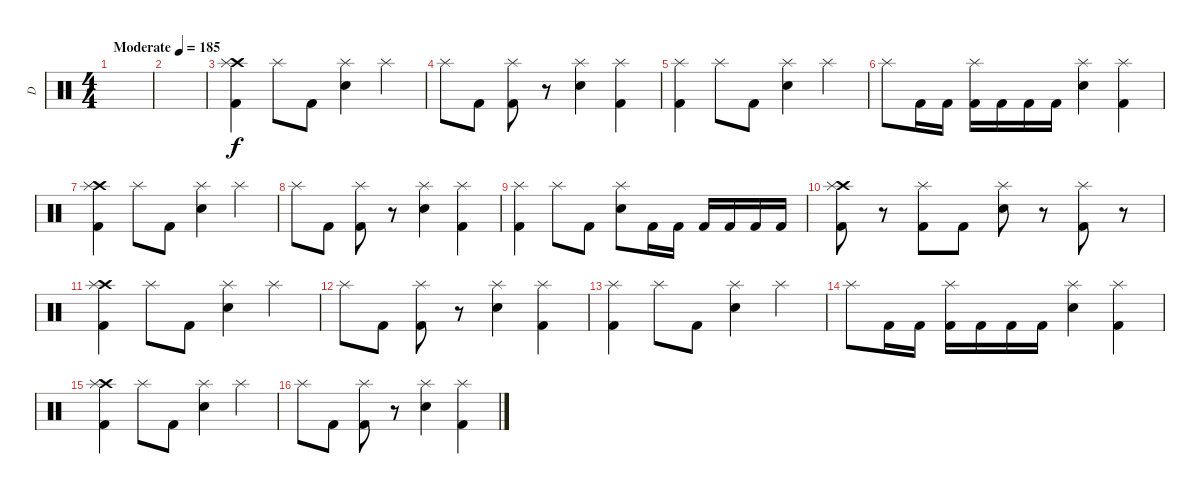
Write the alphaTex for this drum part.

\track ("D" "D") {instrument percussion}
\staff {score}
\articulation defaults
\ts (4 4)
\tempo (185 "Moderate")
\clef neutral
\ks c
|
|
("Crash high (hit)" "Kick (hit) 2" "Splash (hit)").4 "Splash (hit)".8 "Kick (hit) 2".8 ("Electric Snare (hit)" "Splash (hit)").4 "Splash (hit)".4 |
"Splash (hit)".8 "Kick (hit) 2".8 ("Kick (hit) 2" "Splash (hit)").8 r.8 ("Electric Snare (hit)" "Splash (hit)").4 ("Kick (hit) 2" "Splash (hit)").4 |
("Kick (hit) 2" "Splash (hit)").4 "Splash (hit)".8 "Kick (hit) 2".8 ("Electric Snare (hit)" "Splash (hit)").4 "Splash (hit)".4 |
"Splash (hit)".8 "Kick (hit) 2".16 "Kick (hit) 2".16 ("Kick (hit) 2" "Splash (hit)").16 "Kick (hit) 2".16 "Kick (hit) 2".16 "Kick (hit) 2".16 ("Electric Snare (hit)" "Splash (hit)").4 ("Kick (hit) 2" "Splash (hit)").4 |
("Crash high (hit)" "Kick (hit) 2" "Splash (hit)").4 "Splash (hit)".8 "Kick (hit) 2".8 ("Electric Snare (hit)" "Splash (hit)").4 "Splash (hit)".4 |
"Splash (hit)".8 "Kick (hit) 2".8 ("Kick (hit) 2" "Splash (hit)").8 r.8 ("Electric Snare (hit)" "Splash (hit)").4 ("Kick (hit) 2" "Splash (hit)").4 |
("Kick (hit) 2" "Splash (hit)").4 "Splash (hit)".8 "Kick (hit) 2".8 ("Electric Snare (hit)" "Splash (hit)").8 "Kick (hit) 2".16 "Kick (hit) 2".16 "Kick (hit) 2".16 "Kick (hit) 2".16 "Kick (hit) 2".16 "Kick (hit) 2".16 |
("Crash high (hit)" "Kick (hit) 2" "Splash (hit)").8 r.8 ("Kick (hit) 2" "Splash (hit)").8 "Kick (hit) 2".8 ("Electric Snare (hit)" "Splash (hit)").8 r.8 ("Kick (hit) 2" "Splash (hit)").8 r.8 |
("Crash high (hit)" "Kick (hit) 2" "Splash (hit)").4 "Splash (hit)".8 "Kick (hit) 2".8 ("Electric Snare (hit)" "Splash (hit)").4 "Splash (hit)".4 |
"Splash (hit)".8 "Kick (hit) 2".8 ("Kick (hit) 2" "Splash (hit)").8 r.8 ("Electric Snare (hit)" "Splash (hit)").4 ("Kick (hit) 2" "Splash (hit)").4 |
("Kick (hit) 2" "Splash (hit)").4 "Splash (hit)".8 "Kick (hit) 2".8 ("Electric Snare (hit)" "Splash (hit)").4 "Splash (hit)".4 |
"Splash (hit)".8 "Kick (hit) 2".16 "Kick (hit) 2".16 ("Kick (hit) 2" "Splash (hit)").16 "Kick (hit) 2".16 "Kick (hit) 2".16 "Kick (hit) 2".16 ("Electric Snare (hit)" "Splash (hit)").4 ("Kick (hit) 2" "Splash (hit)").4 |
("Crash high (hit)" "Kick (hit) 2" "Splash (hit)").4 "Splash (hit)".8 "Kick (hit) 2".8 ("Electric Snare (hit)" "Splash (hit)").4 "Splash (hit)".4 |
"Splash (hit)".8 "Kick (hit) 2".8 ("Kick (hit) 2" "Splash (hit)").8 r.8 ("Electric Snare (hit)" "Splash (hit)").4 ("Kick (hit) 2" "Splash (hit)").4
